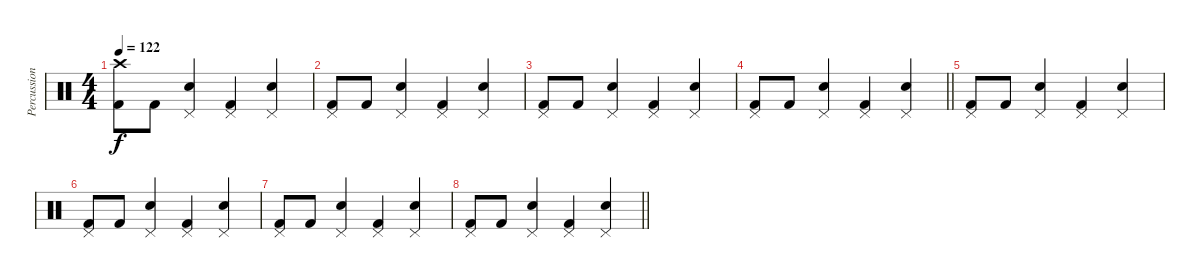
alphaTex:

\track ("Percussion" "Percussion") {instrument percussion}
\staff {score}
\articulation defaults
\ts (4 4)
\tempo 122
\clef neutral
\ks c
("Crash high (hit)" "Kick (hit) 2").8{dy f} "Kick (hit) 2".8 ("Pedal Hi-Hat (hit)" "Electric Snare (hit)").4 ("Pedal Hi-Hat (hit)" "Kick (hit) 2").4 ("Pedal Hi-Hat (hit)" "Electric Snare (hit)").4 |
("Pedal Hi-Hat (hit)" "Kick (hit) 2").8 "Kick (hit) 2".8 ("Pedal Hi-Hat (hit)" "Electric Snare (hit)").4 ("Pedal Hi-Hat (hit)" "Kick (hit) 2").4 ("Pedal Hi-Hat (hit)" "Electric Snare (hit)").4 |
("Pedal Hi-Hat (hit)" "Kick (hit) 2").8 "Kick (hit) 2".8 ("Pedal Hi-Hat (hit)" "Electric Snare (hit)").4 ("Pedal Hi-Hat (hit)" "Kick (hit) 2").4 ("Pedal Hi-Hat (hit)" "Electric Snare (hit)").4 |
\barLineRight lightlight
("Pedal Hi-Hat (hit)" "Kick (hit) 2").8 "Kick (hit) 2".8 ("Pedal Hi-Hat (hit)" "Electric Snare (hit)").4 ("Pedal Hi-Hat (hit)" "Kick (hit) 2").4 ("Pedal Hi-Hat (hit)" "Electric Snare (hit)").4 |
("Pedal Hi-Hat (hit)" "Kick (hit) 2").8 "Kick (hit) 2".8 ("Pedal Hi-Hat (hit)" "Electric Snare (hit)").4 ("Pedal Hi-Hat (hit)" "Kick (hit) 2").4 ("Pedal Hi-Hat (hit)" "Electric Snare (hit)").4 |
("Pedal Hi-Hat (hit)" "Kick (hit) 2").8 "Kick (hit) 2".8 ("Pedal Hi-Hat (hit)" "Electric Snare (hit)").4 ("Pedal Hi-Hat (hit)" "Kick (hit) 2").4 ("Pedal Hi-Hat (hit)" "Electric Snare (hit)").4 |
("Pedal Hi-Hat (hit)" "Kick (hit) 2").8 "Kick (hit) 2".8 ("Pedal Hi-Hat (hit)" "Electric Snare (hit)").4 ("Pedal Hi-Hat (hit)" "Kick (hit) 2").4 ("Pedal Hi-Hat (hit)" "Electric Snare (hit)").4 |
\barLineRight lightlight
("Pedal Hi-Hat (hit)" "Kick (hit) 2").8 "Kick (hit) 2".8 ("Pedal Hi-Hat (hit)" "Electric Snare (hit)").4 ("Pedal Hi-Hat (hit)" "Kick (hit) 2").4 ("Pedal Hi-Hat (hit)" "Electric Snare (hit)").4
